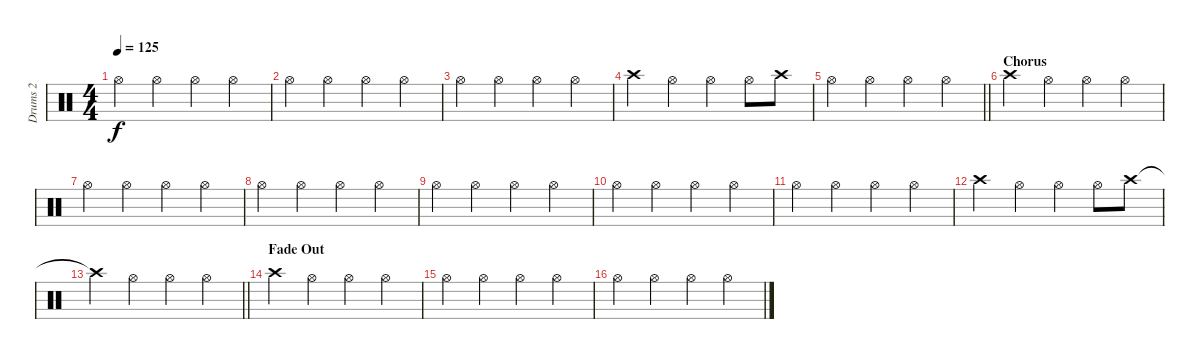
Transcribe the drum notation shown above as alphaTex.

\track ("Drums 2" "Drums 2") {instrument percussion}
\staff {score}
\articulation defaults
\ts (4 4)
\tempo 125
\clef neutral
\ks c "Hi-Hat (open)".4{dy f} "Hi-Hat (open)".4 "Hi-Hat (open)".4 "Hi-Hat (open)".4
|
"Hi-Hat (open)".4 "Hi-Hat (open)".4 "Hi-Hat (open)".4 "Hi-Hat (open)".4 |
"Hi-Hat (open)".4 "Hi-Hat (open)".4 "Hi-Hat (open)".4 "Hi-Hat (open)".4 |
"Crash high (hit)".4 "Hi-Hat (open)".4 "Hi-Hat (open)".4 "Hi-Hat (open)".8 "Crash high (hit)".8 |
\barLineRight lightlight "Hi-Hat (open)".4 "Hi-Hat (open)".4 "Hi-Hat (open)".4 "Hi-Hat (open)".4
|
\section ("" "Chorus")
"Crash high (hit)".4 "Hi-Hat (open)".4 "Hi-Hat (open)".4 "Hi-Hat (open)".4 |
"Hi-Hat (open)".4 "Hi-Hat (open)".4 "Hi-Hat (open)".4 "Hi-Hat (open)".4 |
"Hi-Hat (open)".4 "Hi-Hat (open)".4 "Hi-Hat (open)".4 "Hi-Hat (open)".4 |
"Hi-Hat (open)".4 "Hi-Hat (open)".4 "Hi-Hat (open)".4 "Hi-Hat (open)".4 |
"Hi-Hat (open)".4 "Hi-Hat (open)".4 "Hi-Hat (open)".4 "Hi-Hat (open)".4 |
"Hi-Hat (open)".4 "Hi-Hat (open)".4 "Hi-Hat (open)".4 "Hi-Hat (open)".4 |
"Crash high (hit)".4 "Hi-Hat (open)".4 "Hi-Hat (open)".4 "Hi-Hat (open)".8 "Crash high (hit)".8 |
\barLineRight lightlight "Crash high (hit)"{t}.4 "Hi-Hat (open)".4 "Hi-Hat (open)".4 "Hi-Hat (open)".4
|
\section ("" "Fade Out")
"Crash high (hit)".4 "Hi-Hat (open)".4 "Hi-Hat (open)".4 "Hi-Hat (open)".4 |
"Hi-Hat (open)".4 "Hi-Hat (open)".4 "Hi-Hat (open)".4 "Hi-Hat (open)".4 |
"Hi-Hat (open)".4 "Hi-Hat (open)".4 "Hi-Hat (open)".4 "Hi-Hat (open)".4
